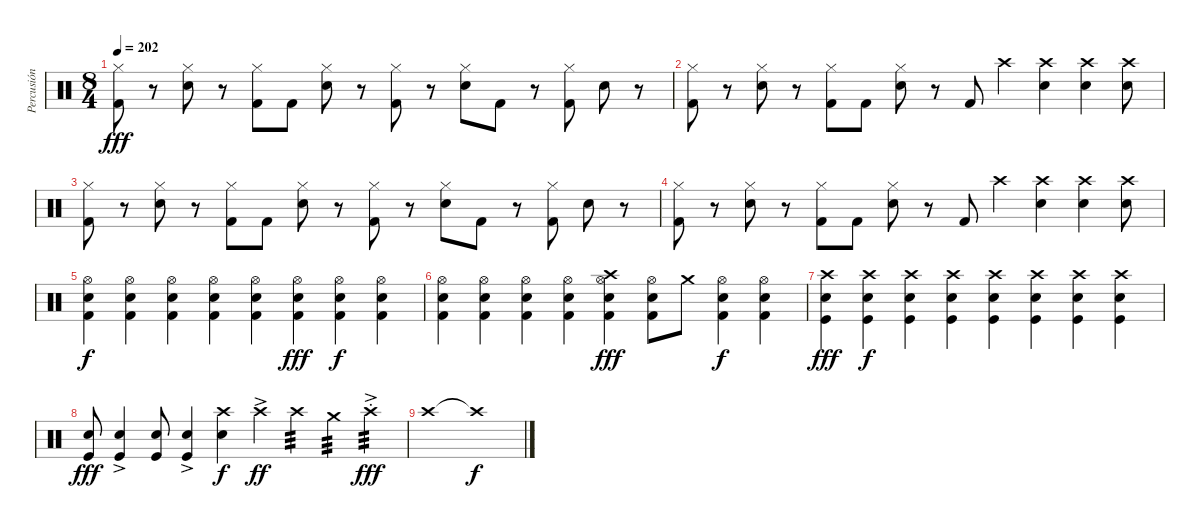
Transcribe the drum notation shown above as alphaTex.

\track ("Percusión (Santi Doré)" "Percusión ") {instrument percussion}
\staff {score}
\articulation defaults
\ts (8 4)
\tempo 202
\clef neutral
\ks c
("Hi-Hat (closed)" "Kick (hit) 2").8{dy fff} r.8 ("Hi-Hat (closed)" "Electric Snare (hit)").8 r.8 ("Hi-Hat (closed)" "Kick (hit) 2").8 "Kick (hit) 2".8 ("Hi-Hat (closed)" "Electric Snare (hit)").8 r.8 ("Hi-Hat (closed)" "Kick (hit) 2").8 r.8 ("Hi-Hat (closed)" "Electric Snare (hit)").8 "Kick (hit) 2".8 r.8 ("Hi-Hat (closed)" "Kick (hit) 2").8 "Electric Snare (hit)".8 r.8 |
("Hi-Hat (closed)" "Kick (hit) 2").8 r.8 ("Hi-Hat (closed)" "Electric Snare (hit)").8 r.8 ("Hi-Hat (closed)" "Kick (hit) 2").8 "Kick (hit) 2".8 ("Hi-Hat (closed)" "Electric Snare (hit)").8 r.8 "Kick (hit) 2".8 "Crash high (hit)".4 ("Crash high (hit)" "Electric Snare (hit)").4 ("Crash high (hit)" "Electric Snare (hit)").4 ("Crash high (hit)" "Electric Snare (hit)").8 |
("Hi-Hat (closed)" "Kick (hit) 2").8 r.8 ("Hi-Hat (closed)" "Electric Snare (hit)").8 r.8 ("Hi-Hat (closed)" "Kick (hit) 2").8 "Kick (hit) 2".8 ("Hi-Hat (closed)" "Electric Snare (hit)").8 r.8 ("Hi-Hat (closed)" "Kick (hit) 2").8 r.8 ("Hi-Hat (closed)" "Electric Snare (hit)").8 "Kick (hit) 2".8 r.8 ("Hi-Hat (closed)" "Kick (hit) 2").8 "Electric Snare (hit)".8 r.8 |
("Hi-Hat (closed)" "Kick (hit) 2").8 r.8 ("Hi-Hat (closed)" "Electric Snare (hit)").8 r.8 ("Hi-Hat (closed)" "Kick (hit) 2").8 "Kick (hit) 2".8 ("Hi-Hat (closed)" "Electric Snare (hit)").8 r.8 "Kick (hit) 2".8 "Crash high (hit)".4 ("Crash high (hit)" "Electric Snare (hit)").4 ("Crash high (hit)" "Electric Snare (hit)").4 ("Crash high (hit)" "Electric Snare (hit)").8 |
("Hi-Hat (open)" "Electric Snare (hit)" "Kick (hit) 2").4{dy f} ("Hi-Hat (open)" "Electric Snare (hit)" "Kick (hit) 2").4 ("Hi-Hat (open)" "Electric Snare (hit)" "Kick (hit) 2").4 ("Hi-Hat (open)" "Electric Snare (hit)" "Kick (hit) 2").4 ("Hi-Hat (open)" "Electric Snare (hit)" "Kick (hit) 2").4 ("Hi-Hat (open)" "Electric Snare (hit)" "Kick (hit) 2").4{dy fff} ("Hi-Hat (open)" "Electric Snare (hit)" "Kick (hit) 2").4{dy f} ("Hi-Hat (open)" "Electric Snare (hit)" "Kick (hit) 2").4 |
("Hi-Hat (open)" "Electric Snare (hit)" "Kick (hit) 2").4 ("Hi-Hat (open)" "Electric Snare (hit)" "Kick (hit) 2").4 ("Hi-Hat (open)" "Electric Snare (hit)" "Kick (hit) 2").4 ("Hi-Hat (open)" "Electric Snare (hit)" "Kick (hit) 2").4 ("Hi-Hat (open)" "Electric Snare (hit)" "Kick (hit) 2" "Crash high (hit)").4{dy fff} ("Hi-Hat (open)" "Electric Snare (hit)" "Kick (hit) 2").8 "Crash medium (hit)".8 ("Hi-Hat (open)" "Electric Snare (hit)" "Kick (hit) 2").4{dy f} ("Hi-Hat (open)" "Electric Snare (hit)" "Kick (hit) 2").4 |
("Crash high (hit)" "Snare (hit) 2" "Kick (hit)").4{dy fff} ("Snare (hit) 2" "Crash high (hit)" "Kick (hit)").4{dy f} ("Crash high (hit)" "Kick (hit)" "Snare (hit) 2").4 ("Snare (hit) 2" "Crash high (hit)" "Kick (hit)").4 ("Kick (hit)" "Crash high (hit)" "Snare (hit) 2").4 ("Snare (hit) 2" "Crash high (hit)" "Kick (hit)").4 ("Kick (hit)" "Snare (hit) 2" "Crash high (hit)").4 ("Kick (hit)" "Snare (hit) 2" "Crash high (hit)").4 |
("Snare (hit) 2" "Kick (hit)").8{dy fff} ("Kick (hit)"{ac} "Snare (hit) 2").4 ("Snare (hit) 2" "Kick (hit)").8 ("Kick (hit)"{ac} "Snare (hit) 2").4 ("Crash high (hit)" "Snare (hit) 2").4{dy f} "Crash high (hit)"{ac}.4{dy ff} "Crash high (hit)".4{tp 3} "Crash medium (hit)".4{tp 3} "Crash high (hit)"{ac st}.4{tp 3 dy fff} |
"Crash high (hit)".1 "Crash high (hit)"{t}.1{dy f}
